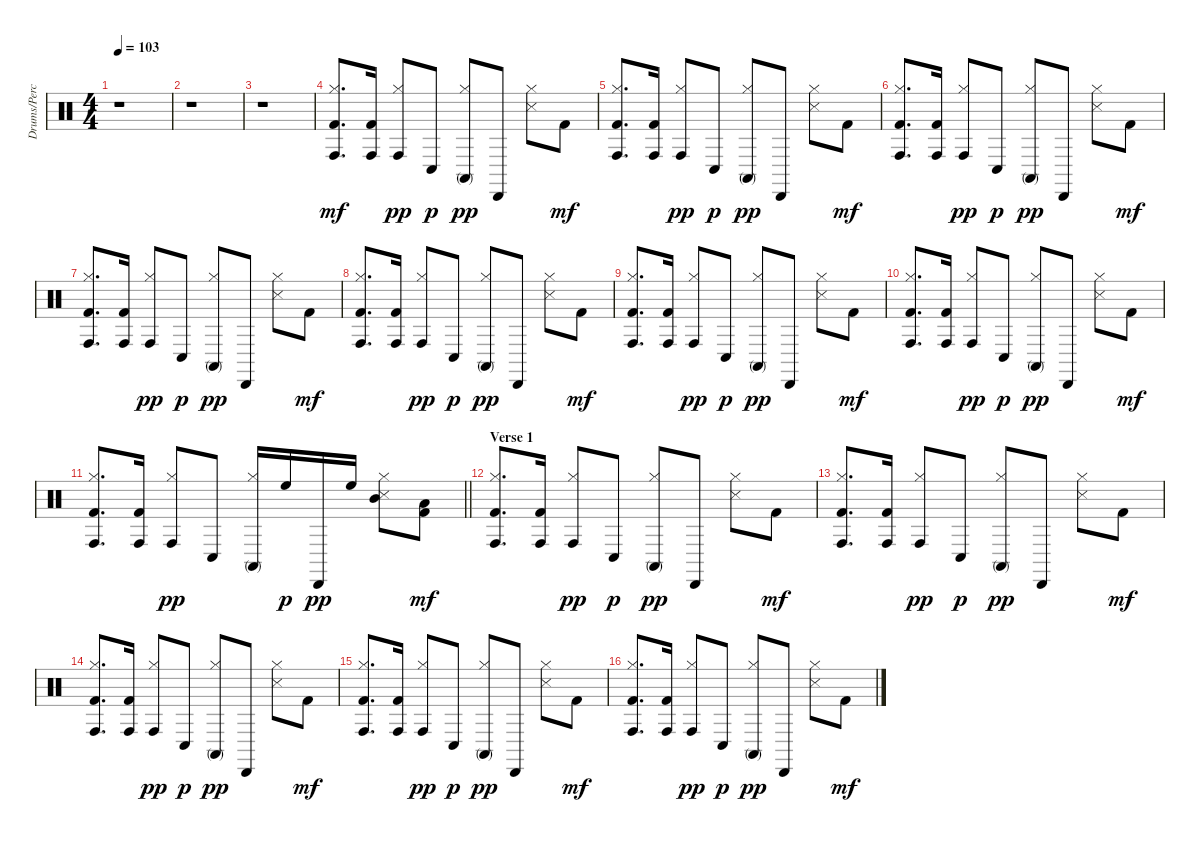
\track ("Drums/Perc." "Drums/Perc") {instrument percussion}
\staff {score}
\articulation defaults
\ts (4 4)
\tempo 103
\clef neutral
\ks c
r.1{dy mf} |
r.1 |
r.1 |
("Conga high (hit)" "Hi-Hat (closed)" "Kick (hit) 2").8{d} ("Conga high (hit)" "Kick (hit) 2").16 ("Conga high (hit)" "Hi-Hat (closed)").8{dy pp} "Conga low (hit)".8{dy p} ("Conga high (mute)" "Hi-Hat (closed)").8{dy pp} "Cabasa (hit)".8 ("Hi-Hat (closed)" "Snare (side stick) 3").8 "Kick (hit) 2".8{dy mf} |
("Conga high (hit)" "Hi-Hat (closed)" "Kick (hit) 2").8{d} ("Conga high (hit)" "Kick (hit) 2").16 ("Conga high (hit)" "Hi-Hat (closed)").8{dy pp} "Conga low (hit)".8{dy p} ("Conga high (mute)" "Hi-Hat (closed)").8{dy pp} "Cabasa (hit)".8 ("Hi-Hat (closed)" "Snare (side stick) 3").8 "Kick (hit) 2".8{dy mf} |
("Conga high (hit)" "Hi-Hat (closed)" "Kick (hit) 2").8{d} ("Conga high (hit)" "Kick (hit) 2").16 ("Conga high (hit)" "Hi-Hat (closed)").8{dy pp} "Conga low (hit)".8{dy p} ("Conga high (mute)" "Hi-Hat (closed)").8{dy pp} "Cabasa (hit)".8 ("Hi-Hat (closed)" "Snare (side stick) 3").8 "Kick (hit) 2".8{dy mf} |
("Conga high (hit)" "Hi-Hat (closed)" "Kick (hit) 2").8{d} ("Conga high (hit)" "Kick (hit) 2").16 ("Conga high (hit)" "Hi-Hat (closed)").8{dy pp} "Conga low (hit)".8{dy p} ("Conga high (mute)" "Hi-Hat (closed)").8{dy pp} "Cabasa (hit)".8 ("Hi-Hat (closed)" "Snare (side stick) 3").8 "Kick (hit) 2".8{dy mf} |
("Conga high (hit)" "Hi-Hat (closed)" "Kick (hit) 2").8{d} ("Conga high (hit)" "Kick (hit) 2").16 ("Conga high (hit)" "Hi-Hat (closed)").8{dy pp} "Conga low (hit)".8{dy p} ("Conga high (mute)" "Hi-Hat (closed)").8{dy pp} "Cabasa (hit)".8 ("Hi-Hat (closed)" "Snare (side stick) 3").8 "Kick (hit) 2".8{dy mf} |
("Conga high (hit)" "Hi-Hat (closed)" "Kick (hit) 2").8{d} ("Conga high (hit)" "Kick (hit) 2").16 ("Conga high (hit)" "Hi-Hat (closed)").8{dy pp} "Conga low (hit)".8{dy p} ("Conga high (mute)" "Hi-Hat (closed)").8{dy pp} "Cabasa (hit)".8 ("Hi-Hat (closed)" "Snare (side stick) 3").8 "Kick (hit) 2".8{dy mf} |
("Conga high (hit)" "Hi-Hat (closed)" "Kick (hit) 2").8{d} ("Conga high (hit)" "Kick (hit) 2").16 ("Conga high (hit)" "Hi-Hat (closed)").8{dy pp} "Conga low (hit)".8{dy p} ("Conga high (mute)" "Hi-Hat (closed)").8{dy pp} "Cabasa (hit)".8 ("Hi-Hat (closed)" "Snare (side stick) 3").8 "Kick (hit) 2".8{dy mf} |
\barLineRight lightlight
("Conga high (hit)" "Hi-Hat (closed)" "Kick (hit) 2").8{d} ("Conga high (hit)" "Kick (hit) 2").16 ("Conga high (hit)" "Hi-Hat (closed)").8{dy pp} "Conga low (hit)".8 ("Conga high (mute)" "Hi-Hat (closed)").16 "High Floor Tom (hit)".16{dy p} "Cabasa (hit)".16{dy pp} "High Floor Tom (hit)".16 ("Mid Tom (hit)" "Hi-Hat (closed)" "Snare (side stick) 3").8 ("Low Floor Tom (hit)" "Kick (hit) 2").8{dy mf} |
\section ("" "Verse 1")
("Conga high (hit)" "Hi-Hat (closed)" "Kick (hit) 2").8{d} ("Conga high (hit)" "Kick (hit) 2").16 ("Conga high (hit)" "Hi-Hat (closed)").8{dy pp} "Conga low (hit)".8{dy p} ("Conga high (mute)" "Hi-Hat (closed)").8{dy pp} "Cabasa (hit)".8 ("Hi-Hat (closed)" "Snare (side stick) 3").8 "Kick (hit) 2".8{dy mf} |
("Conga high (hit)" "Hi-Hat (closed)" "Kick (hit) 2").8{d} ("Conga high (hit)" "Kick (hit) 2").16 ("Conga high (hit)" "Hi-Hat (closed)").8{dy pp} "Conga low (hit)".8{dy p} ("Conga high (mute)" "Hi-Hat (closed)").8{dy pp} "Cabasa (hit)".8 ("Hi-Hat (closed)" "Snare (side stick) 3").8 "Kick (hit) 2".8{dy mf} |
("Conga high (hit)" "Hi-Hat (closed)" "Kick (hit) 2").8{d} ("Conga high (hit)" "Kick (hit) 2").16 ("Conga high (hit)" "Hi-Hat (closed)").8{dy pp} "Conga low (hit)".8{dy p} ("Conga high (mute)" "Hi-Hat (closed)").8{dy pp} "Cabasa (hit)".8 ("Hi-Hat (closed)" "Snare (side stick) 3").8 "Kick (hit) 2".8{dy mf} |
("Conga high (hit)" "Hi-Hat (closed)" "Kick (hit) 2").8{d} ("Conga high (hit)" "Kick (hit) 2").16 ("Conga high (hit)" "Hi-Hat (closed)").8{dy pp} "Conga low (hit)".8{dy p} ("Conga high (mute)" "Hi-Hat (closed)").8{dy pp} "Cabasa (hit)".8 ("Hi-Hat (closed)" "Snare (side stick) 3").8 "Kick (hit) 2".8{dy mf} |
("Conga high (hit)" "Hi-Hat (closed)" "Kick (hit) 2").8{d} ("Conga high (hit)" "Kick (hit) 2").16 ("Conga high (hit)" "Hi-Hat (closed)").8{dy pp} "Conga low (hit)".8{dy p} ("Conga high (mute)" "Hi-Hat (closed)").8{dy pp} "Cabasa (hit)".8 ("Hi-Hat (closed)" "Snare (side stick) 3").8 "Kick (hit) 2".8{dy mf}
